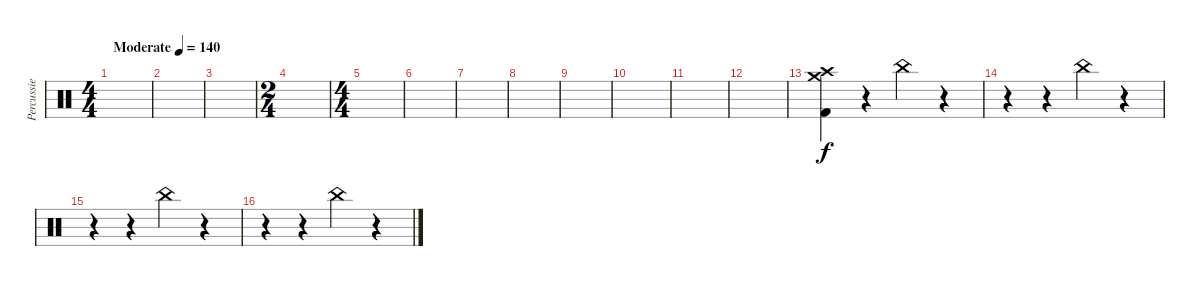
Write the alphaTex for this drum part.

\track ("Percussie" "Percussie") {instrument percussion}
\staff {score}
\articulation defaults
\ts (4 4)
\tempo (140 "Moderate")
\clef neutral
\ks c
|
|
|
\ts (2 4)
|
\ts (4 4)
|
|
|
|
|
|
|
|
("Crash medium (hit)" "Crash high (hit)" "Kick (hit) 2").4 r.4 "China (hit)".4 r.4 |
r.4 r.4 "China (hit)".4 r.4 |
r.4 r.4 "China (hit)".4 r.4 |
r.4 r.4 "China (hit)".4 r.4
